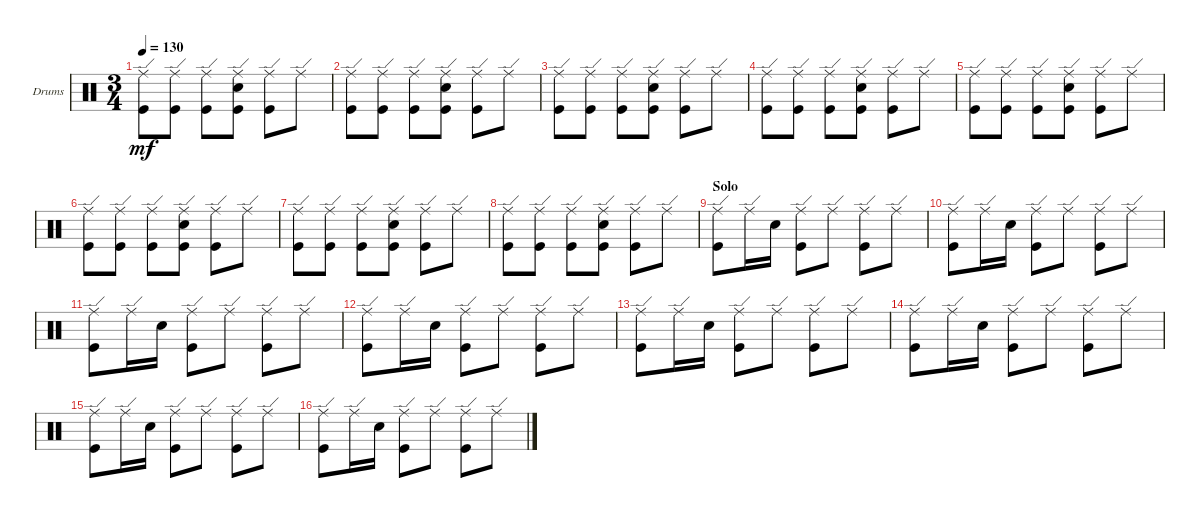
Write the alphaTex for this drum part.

\defaultSystemsLayout 4
\bracketExtendMode groupsimilarinstruments
\firstSystemTrackNameOrientation horizontal
\otherSystemsTrackNameOrientation horizontal
\track ("Drumkit" "Drums") {instrument percussion}
\staff {score}
\articulation defaults
\ts (3 4)
\tempo 130
\clef neutral
\ks c
("Kick (hit)" "Ride (edge)").8{dy mf} ("Ride (edge)" "Kick (hit)").8 ("Ride (edge)" "Kick (hit)").8 ("Ride (edge)" "Kick (hit)" "Snare (hit) 2").8 ("Kick (hit)" "Ride (edge)").8 "Ride (edge)".8 |
("Kick (hit)" "Ride (edge)").8 ("Ride (edge)" "Kick (hit)").8 ("Ride (edge)" "Kick (hit)").8 ("Ride (edge)" "Kick (hit)" "Snare (hit) 2").8 ("Kick (hit)" "Ride (edge)").8 "Ride (edge)".8 |
("Kick (hit)" "Ride (edge)").8 ("Ride (edge)" "Kick (hit)").8 ("Ride (edge)" "Kick (hit)").8 ("Ride (edge)" "Kick (hit)" "Snare (hit) 2").8 ("Kick (hit)" "Ride (edge)").8 "Ride (edge)".8 |
("Kick (hit)" "Ride (edge)").8 ("Ride (edge)" "Kick (hit)").8 ("Ride (edge)" "Kick (hit)").8 ("Ride (edge)" "Kick (hit)" "Snare (hit) 2").8 ("Kick (hit)" "Ride (edge)").8 "Ride (edge)".8 |
("Kick (hit)" "Ride (edge)").8 ("Ride (edge)" "Kick (hit)").8 ("Ride (edge)" "Kick (hit)").8 ("Ride (edge)" "Kick (hit)" "Snare (hit) 2").8 ("Kick (hit)" "Ride (edge)").8 "Ride (edge)".8 |
("Kick (hit)" "Ride (edge)").8 ("Ride (edge)" "Kick (hit)").8 ("Ride (edge)" "Kick (hit)").8 ("Ride (edge)" "Kick (hit)" "Snare (hit) 2").8 ("Kick (hit)" "Ride (edge)").8 "Ride (edge)".8 |
("Kick (hit)" "Ride (edge)").8 ("Ride (edge)" "Kick (hit)").8 ("Ride (edge)" "Kick (hit)").8 ("Ride (edge)" "Kick (hit)" "Snare (hit) 2").8 ("Kick (hit)" "Ride (edge)").8 "Ride (edge)".8 |
("Kick (hit)" "Ride (edge)").8 ("Ride (edge)" "Kick (hit)").8 ("Ride (edge)" "Kick (hit)").8 ("Ride (edge)" "Kick (hit)" "Snare (hit) 2").8 ("Kick (hit)" "Ride (edge)").8 "Ride (edge)".8 |
\section ("" "Solo")
("Kick (hit)" "Ride (edge)").8 "Ride (edge)".16 "Snare (hit) 2".16 ("Ride (edge)" "Kick (hit)").8 "Ride (edge)".8 ("Kick (hit)" "Ride (edge)").8 "Ride (edge)".8 |
("Kick (hit)" "Ride (edge)").8 "Ride (edge)".16 "Snare (hit) 2".16 ("Ride (edge)" "Kick (hit)").8 "Ride (edge)".8 ("Kick (hit)" "Ride (edge)").8 "Ride (edge)".8 |
("Kick (hit)" "Ride (edge)").8 "Ride (edge)".16 "Snare (hit) 2".16 ("Ride (edge)" "Kick (hit)").8 "Ride (edge)".8 ("Kick (hit)" "Ride (edge)").8 "Ride (edge)".8 |
("Kick (hit)" "Ride (edge)").8 "Ride (edge)".16 "Snare (hit) 2".16 ("Ride (edge)" "Kick (hit)").8 "Ride (edge)".8 ("Kick (hit)" "Ride (edge)").8 "Ride (edge)".8 |
("Kick (hit)" "Ride (edge)").8 "Ride (edge)".16 "Snare (hit) 2".16 ("Ride (edge)" "Kick (hit)").8 "Ride (edge)".8 ("Kick (hit)" "Ride (edge)").8 "Ride (edge)".8 |
("Kick (hit)" "Ride (edge)").8 "Ride (edge)".16 "Snare (hit) 2".16 ("Ride (edge)" "Kick (hit)").8 "Ride (edge)".8 ("Kick (hit)" "Ride (edge)").8 "Ride (edge)".8 |
("Kick (hit)" "Ride (edge)").8 "Ride (edge)".16 "Snare (hit) 2".16 ("Ride (edge)" "Kick (hit)").8 "Ride (edge)".8 ("Kick (hit)" "Ride (edge)").8 "Ride (edge)".8 |
("Kick (hit)" "Ride (edge)").8 "Ride (edge)".16 "Snare (hit) 2".16 ("Ride (edge)" "Kick (hit)").8 "Ride (edge)".8 ("Kick (hit)" "Ride (edge)").8 "Ride (edge)".8
